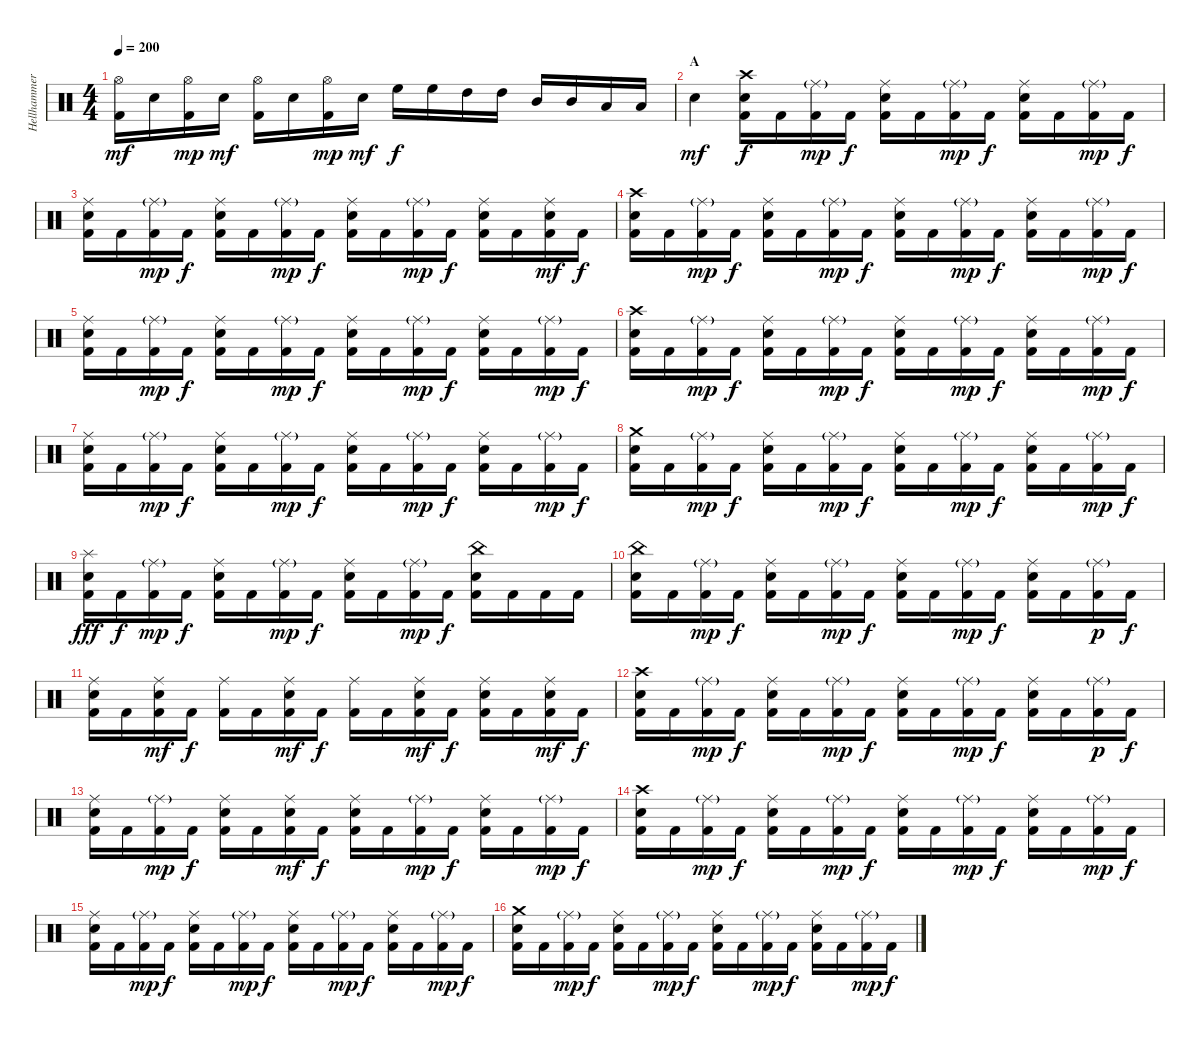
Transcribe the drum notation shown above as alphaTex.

\track ("Hellhammer" "Hellhammer") {instrument percussion}
\staff {score}
\articulation defaults
\ts (4 4)
\tempo 200
\clef neutral
\ks c
("Kick (hit) 2" "Hi-Hat (open)").16{dy mf} "Electric Snare (hit)".16 ("Kick (hit) 2" "Hi-Hat (open)").16{dy mp} "Electric Snare (hit)".16{dy mf} ("Kick (hit) 2" "Hi-Hat (open)").16 "Electric Snare (hit)".16 ("Kick (hit) 2" "Hi-Hat (open)").16{dy mp} "Electric Snare (hit)".16{dy mf} "High Floor Tom (hit)".16{dy f} "High Floor Tom (hit)".16 "High Tom (hit)".16 "High Tom (hit)".16 "Mid Tom (hit)".16 "Mid Tom (hit)".16 "Low Tom (hit)".16 "Low Tom (hit)".16 |
\section ("" "A")
"Electric Snare (hit)".4{dy mf} ("Kick (hit) 2" "Electric Snare (hit)" "Crash high (hit)").16{dy f} "Kick (hit) 2".16 ("Kick (hit) 2" "Ride (middle)"{g}).16{dy mp} "Kick (hit) 2".16{dy f} ("Kick (hit) 2" "Electric Snare (hit)" "Ride (middle)").16 "Kick (hit) 2".16 ("Kick (hit) 2" "Ride (middle)"{g}).16{dy mp} "Kick (hit) 2".16{dy f} ("Kick (hit) 2" "Electric Snare (hit)" "Ride (middle)").16 "Kick (hit) 2".16 ("Kick (hit) 2" "Ride (middle)"{g}).16{dy mp} "Kick (hit) 2".16{dy f} |
("Kick (hit) 2" "Electric Snare (hit)" "Ride (middle)").16 "Kick (hit) 2".16 ("Kick (hit) 2" "Ride (middle)"{g}).16{dy mp} "Kick (hit) 2".16{dy f} ("Kick (hit) 2" "Electric Snare (hit)" "Ride (middle)").16 "Kick (hit) 2".16 ("Kick (hit) 2" "Ride (middle)"{g}).16{dy mp} "Kick (hit) 2".16{dy f} ("Kick (hit) 2" "Electric Snare (hit)" "Ride (middle)").16 "Kick (hit) 2".16 ("Kick (hit) 2" "Ride (middle)"{g}).16{dy mp} "Kick (hit) 2".16{dy f} ("Kick (hit) 2" "Electric Snare (hit)" "Ride (middle)").16 "Kick (hit) 2".16 ("Kick (hit) 2" "Electric Snare (hit)" "Ride (middle)").16{dy mf} "Kick (hit) 2".16{dy f} |
("Kick (hit) 2" "Electric Snare (hit)" "Crash high (hit)").16 "Kick (hit) 2".16 ("Kick (hit) 2" "Ride (middle)"{g}).16{dy mp} "Kick (hit) 2".16{dy f} ("Kick (hit) 2" "Electric Snare (hit)" "Ride (middle)").16 "Kick (hit) 2".16 ("Kick (hit) 2" "Ride (middle)"{g}).16{dy mp} "Kick (hit) 2".16{dy f} ("Kick (hit) 2" "Electric Snare (hit)" "Ride (middle)").16 "Kick (hit) 2".16 ("Kick (hit) 2" "Ride (middle)"{g}).16{dy mp} "Kick (hit) 2".16{dy f} ("Kick (hit) 2" "Electric Snare (hit)" "Ride (middle)").16 "Kick (hit) 2".16 ("Kick (hit) 2" "Ride (middle)"{g}).16{dy mp} "Kick (hit) 2".16{dy f} |
("Kick (hit) 2" "Electric Snare (hit)" "Ride (middle)").16 "Kick (hit) 2".16 ("Kick (hit) 2" "Ride (middle)"{g}).16{dy mp} "Kick (hit) 2".16{dy f} ("Kick (hit) 2" "Electric Snare (hit)" "Ride (middle)").16 "Kick (hit) 2".16 ("Kick (hit) 2" "Ride (middle)"{g}).16{dy mp} "Kick (hit) 2".16{dy f} ("Kick (hit) 2" "Electric Snare (hit)" "Ride (middle)").16 "Kick (hit) 2".16 ("Kick (hit) 2" "Ride (middle)"{g}).16{dy mp} "Kick (hit) 2".16{dy f} ("Kick (hit) 2" "Electric Snare (hit)" "Ride (middle)").16 "Kick (hit) 2".16 ("Kick (hit) 2" "Ride (middle)"{g}).16{dy mp} "Kick (hit) 2".16{dy f} |
("Kick (hit) 2" "Electric Snare (hit)" "Crash high (hit)").16 "Kick (hit) 2".16 ("Kick (hit) 2" "Ride (middle)"{g}).16{dy mp} "Kick (hit) 2".16{dy f} ("Kick (hit) 2" "Electric Snare (hit)" "Ride (middle)").16 "Kick (hit) 2".16 ("Kick (hit) 2" "Ride (middle)"{g}).16{dy mp} "Kick (hit) 2".16{dy f} ("Kick (hit) 2" "Electric Snare (hit)" "Ride (middle)").16 "Kick (hit) 2".16 ("Kick (hit) 2" "Ride (middle)"{g}).16{dy mp} "Kick (hit) 2".16{dy f} ("Kick (hit) 2" "Electric Snare (hit)" "Ride (middle)").16 "Kick (hit) 2".16 ("Kick (hit) 2" "Ride (middle)"{g}).16{dy mp} "Kick (hit) 2".16{dy f} |
("Kick (hit) 2" "Electric Snare (hit)" "Ride (middle)").16 "Kick (hit) 2".16 ("Kick (hit) 2" "Ride (middle)"{g}).16{dy mp} "Kick (hit) 2".16{dy f} ("Kick (hit) 2" "Electric Snare (hit)" "Ride (middle)").16 "Kick (hit) 2".16 ("Kick (hit) 2" "Ride (middle)"{g}).16{dy mp} "Kick (hit) 2".16{dy f} ("Kick (hit) 2" "Electric Snare (hit)" "Ride (middle)").16 "Kick (hit) 2".16 ("Kick (hit) 2" "Ride (middle)"{g}).16{dy mp} "Kick (hit) 2".16{dy f} ("Kick (hit) 2" "Electric Snare (hit)" "Ride (middle)").16 "Kick (hit) 2".16 ("Kick (hit) 2" "Ride (middle)"{g}).16{dy mp} "Kick (hit) 2".16{dy f} |
("Kick (hit) 2" "Electric Snare (hit)" "Crash medium (hit)").16 "Kick (hit) 2".16 ("Kick (hit) 2" "Ride (middle)"{g}).16{dy mp} "Kick (hit) 2".16{dy f} ("Kick (hit) 2" "Electric Snare (hit)" "Ride (middle)").16 "Kick (hit) 2".16 ("Kick (hit) 2" "Ride (middle)"{g}).16{dy mp} "Kick (hit) 2".16{dy f} ("Kick (hit) 2" "Electric Snare (hit)" "Ride (middle)").16 "Kick (hit) 2".16 ("Kick (hit) 2" "Ride (middle)"{g}).16{dy mp} "Kick (hit) 2".16{dy f} ("Kick (hit) 2" "Electric Snare (hit)" "Ride (middle)").16 "Kick (hit) 2".16 ("Kick (hit) 2" "Ride (middle)"{g}).16{dy mp} "Kick (hit) 2".16{dy f} |
("Kick (hit) 2" "Electric Snare (hit)" "Splash (hit)").16{dy fff} "Kick (hit) 2".16{dy f} ("Kick (hit) 2" "Ride (middle)"{g}).16{dy mp} "Kick (hit) 2".16{dy f} ("Kick (hit) 2" "Electric Snare (hit)" "Ride (middle)").16 "Kick (hit) 2".16 ("Kick (hit) 2" "Ride (middle)"{g}).16{dy mp} "Kick (hit) 2".16{dy f} ("Kick (hit) 2" "Electric Snare (hit)" "Ride (middle)").16 "Kick (hit) 2".16 ("Kick (hit) 2" "Ride (middle)"{g}).16{dy mp} "Kick (hit) 2".16{dy f} ("Kick (hit) 2" "Electric Snare (hit)" "China (hit)").16 "Kick (hit) 2".16 "Kick (hit) 2".16 "Kick (hit) 2".16 |
("Kick (hit) 2" "Electric Snare (hit)" "China (hit)").16 "Kick (hit) 2".16 ("Kick (hit) 2" "Ride (middle)"{g}).16{dy mp} "Kick (hit) 2".16{dy f} ("Kick (hit) 2" "Electric Snare (hit)" "Ride (middle)").16 "Kick (hit) 2".16 ("Kick (hit) 2" "Ride (middle)"{g}).16{dy mp} "Kick (hit) 2".16{dy f} ("Kick (hit) 2" "Electric Snare (hit)" "Ride (middle)").16 "Kick (hit) 2".16 ("Kick (hit) 2" "Ride (middle)"{g}).16{dy mp} "Kick (hit) 2".16{dy f} ("Kick (hit) 2" "Electric Snare (hit)" "Ride (middle)").16 "Kick (hit) 2".16 ("Kick (hit) 2" "Ride (middle)"{g}).16{dy p} "Kick (hit) 2".16{dy f} |
("Kick (hit) 2" "Electric Snare (hit)" "Ride (middle)").16 "Kick (hit) 2".16 ("Kick (hit) 2" "Electric Snare (hit)" "Ride (middle)").16{dy mf} "Kick (hit) 2".16{dy f} ("Kick (hit) 2" "Ride (middle)").16 "Kick (hit) 2".16 ("Kick (hit) 2" "Electric Snare (hit)" "Ride (middle)").16{dy mf} "Kick (hit) 2".16{dy f} ("Kick (hit) 2" "Ride (middle)").16 "Kick (hit) 2".16 ("Kick (hit) 2" "Electric Snare (hit)" "Ride (middle)").16{dy mf} "Kick (hit) 2".16{dy f} ("Kick (hit) 2" "Electric Snare (hit)" "Ride (middle)").16 "Kick (hit) 2".16 ("Kick (hit) 2" "Electric Snare (hit)" "Ride (middle)").16{dy mf} "Kick (hit) 2".16{dy f} |
("Kick (hit) 2" "Electric Snare (hit)" "Crash high (hit)").16 "Kick (hit) 2".16 ("Kick (hit) 2" "Ride (middle)"{g}).16{dy mp} "Kick (hit) 2".16{dy f} ("Kick (hit) 2" "Electric Snare (hit)" "Ride (middle)").16 "Kick (hit) 2".16 ("Kick (hit) 2" "Ride (middle)"{g}).16{dy mp} "Kick (hit) 2".16{dy f} ("Kick (hit) 2" "Electric Snare (hit)" "Ride (middle)").16 "Kick (hit) 2".16 ("Kick (hit) 2" "Ride (middle)"{g}).16{dy mp} "Kick (hit) 2".16{dy f} ("Kick (hit) 2" "Electric Snare (hit)" "Ride (middle)").16 "Kick (hit) 2".16 ("Kick (hit) 2" "Ride (middle)"{g}).16{dy p} "Kick (hit) 2".16{dy f} |
("Kick (hit) 2" "Electric Snare (hit)" "Ride (middle)").16 "Kick (hit) 2".16 ("Kick (hit) 2" "Ride (middle)"{g}).16{dy mp} "Kick (hit) 2".16{dy f} ("Kick (hit) 2" "Electric Snare (hit)" "Ride (middle)").16 "Kick (hit) 2".16 ("Kick (hit) 2" "Electric Snare (hit)" "Ride (middle)").16{dy mf} "Kick (hit) 2".16{dy f} ("Kick (hit) 2" "Electric Snare (hit)" "Ride (middle)").16 "Kick (hit) 2".16 ("Kick (hit) 2" "Ride (middle)"{g}).16{dy mp} "Kick (hit) 2".16{dy f} ("Kick (hit) 2" "Electric Snare (hit)" "Ride (middle)").16 "Kick (hit) 2".16 ("Kick (hit) 2" "Ride (middle)"{g}).16{dy mp} "Kick (hit) 2".16{dy f} |
("Kick (hit) 2" "Electric Snare (hit)" "Crash high (hit)").16 "Kick (hit) 2".16 ("Kick (hit) 2" "Ride (middle)"{g}).16{dy mp} "Kick (hit) 2".16{dy f} ("Kick (hit) 2" "Electric Snare (hit)" "Ride (middle)").16 "Kick (hit) 2".16 ("Kick (hit) 2" "Ride (middle)"{g}).16{dy mp} "Kick (hit) 2".16{dy f} ("Kick (hit) 2" "Electric Snare (hit)" "Ride (middle)").16 "Kick (hit) 2".16 ("Kick (hit) 2" "Ride (middle)"{g}).16{dy mp} "Kick (hit) 2".16{dy f} ("Kick (hit) 2" "Electric Snare (hit)" "Ride (middle)").16 "Kick (hit) 2".16 ("Kick (hit) 2" "Ride (middle)"{g}).16{dy mp} "Kick (hit) 2".16{dy f} |
("Kick (hit) 2" "Electric Snare (hit)" "Ride (middle)").16 "Kick (hit) 2".16 ("Kick (hit) 2" "Ride (middle)"{g}).16{dy mp} "Kick (hit) 2".16{dy f} ("Kick (hit) 2" "Electric Snare (hit)" "Ride (middle)").16 "Kick (hit) 2".16 ("Kick (hit) 2" "Ride (middle)"{g}).16{dy mp} "Kick (hit) 2".16{dy f} ("Kick (hit) 2" "Electric Snare (hit)" "Ride (middle)").16 "Kick (hit) 2".16 ("Kick (hit) 2" "Ride (middle)"{g}).16{dy mp} "Kick (hit) 2".16{dy f} ("Kick (hit) 2" "Electric Snare (hit)" "Ride (middle)").16 "Kick (hit) 2".16 ("Kick (hit) 2" "Ride (middle)"{g}).16{dy mp} "Kick (hit) 2".16{dy f} |
("Kick (hit) 2" "Electric Snare (hit)" "Crash medium (hit)").16 "Kick (hit) 2".16 ("Kick (hit) 2" "Ride (middle)"{g}).16{dy mp} "Kick (hit) 2".16{dy f} ("Kick (hit) 2" "Electric Snare (hit)" "Ride (middle)").16 "Kick (hit) 2".16 ("Kick (hit) 2" "Ride (middle)"{g}).16{dy mp} "Kick (hit) 2".16{dy f} ("Kick (hit) 2" "Electric Snare (hit)" "Ride (middle)").16 "Kick (hit) 2".16 ("Kick (hit) 2" "Ride (middle)"{g}).16{dy mp} "Kick (hit) 2".16{dy f} ("Kick (hit) 2" "Electric Snare (hit)" "Ride (middle)").16 "Kick (hit) 2".16 ("Kick (hit) 2" "Ride (middle)"{g}).16{dy mp} "Kick (hit) 2".16{dy f}
